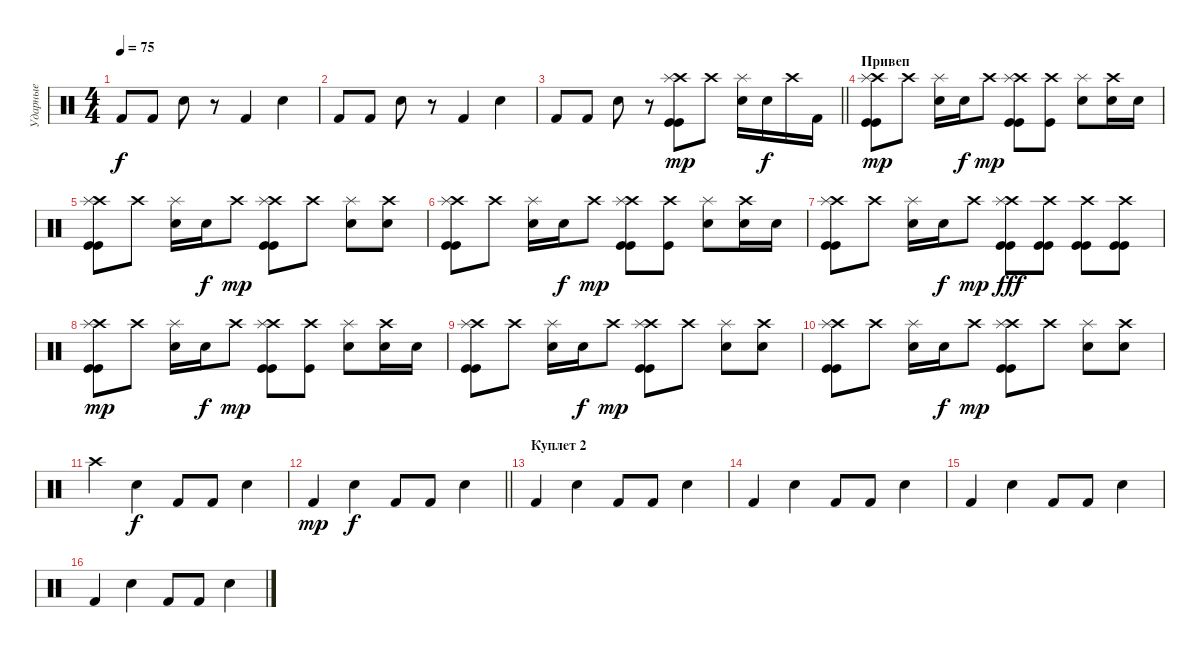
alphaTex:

\track ("Ударные" "Ударные") {instrument percussion}
\staff {score}
\articulation defaults
\ts (4 4)
\tempo 75
\clef neutral
\ks c "Kick (hit) 2".8{dy f} "Kick (hit) 2".8 "Electric Snare (hit)".8
r.8 "Kick (hit) 2".4 "Electric Snare (hit)".4 |
"Kick (hit) 2".8 "Kick (hit) 2".8 "Electric Snare (hit)".8 r.8 "Kick (hit) 2".4 "Electric Snare (hit)".4 |
\barLineRight lightlight "Kick (hit) 2".8 "Kick (hit) 2".8 "Electric Snare (hit)".8
r.8 ("Crash high (hit)" "Splash (hit)" "Kick (hit)" "Kick (hit)").8{dy mp} "Crash high (hit)".8 ("Splash (hit)" "Electric Snare (hit)").16 "Snare (hit) 2".16{dy f} "Crash high (hit)".16 "Kick (hit) 2".16 |
\section ("" "Привеп")
("Crash high (hit)" "Splash (hit)" "Kick (hit)" "Kick (hit)").8{dy mp} "Crash high (hit)".8 ("Splash (hit)" "Electric Snare (hit)").16 "Snare (hit) 2".16{dy f} "Crash high (hit)".8{dy mp} ("Crash high (hit)" "Splash (hit)" "Kick (hit)" "Kick (hit)").8 ("Crash high (hit)" "Kick (hit)").8 ("Splash (hit)" "Electric Snare (hit)").8 ("Crash high (hit)" "Snare (hit) 2").16 "Electric Snare (hit)".16 |
("Crash high (hit)" "Splash (hit)" "Kick (hit)" "Kick (hit)").8 "Crash high (hit)".8 ("Splash (hit)" "Electric Snare (hit)").16 "Snare (hit) 2".16{dy f} "Crash high (hit)".8{dy mp} ("Crash high (hit)" "Splash (hit)" "Kick (hit)" "Kick (hit)").8 "Crash high (hit)".8 ("Splash (hit)" "Electric Snare (hit)").8 ("Crash high (hit)" "Snare (hit) 2").8 |
("Crash high (hit)" "Splash (hit)" "Kick (hit)" "Kick (hit)").8 "Crash high (hit)".8 ("Splash (hit)" "Electric Snare (hit)").16 "Snare (hit) 2".16{dy f} "Crash high (hit)".8{dy mp} ("Crash high (hit)" "Splash (hit)" "Kick (hit)" "Kick (hit)").8 ("Crash high (hit)" "Kick (hit)").8 ("Splash (hit)" "Electric Snare (hit)").8 ("Crash high (hit)" "Snare (hit) 2").16 "Electric Snare (hit)".16 |
("Crash high (hit)" "Splash (hit)" "Kick (hit)" "Kick (hit)").8 "Crash high (hit)".8 ("Splash (hit)" "Electric Snare (hit)").16 "Snare (hit) 2".16{dy f} "Crash high (hit)".8{dy mp} ("Crash high (hit)" "Splash (hit)" "Kick (hit)" "Kick (hit)").8{dy fff} ("Crash high (hit)" "Kick (hit)" "Kick (hit)").8 ("Crash high (hit)" "Kick (hit)" "Kick (hit)").8 ("Crash high (hit)" "Kick (hit)" "Kick (hit)").8 |
("Crash high (hit)" "Splash (hit)" "Kick (hit)" "Kick (hit)").8{dy mp} "Crash high (hit)".8 ("Splash (hit)" "Electric Snare (hit)").16 "Snare (hit) 2".16{dy f} "Crash high (hit)".8{dy mp} ("Crash high (hit)" "Splash (hit)" "Kick (hit)" "Kick (hit)").8 ("Crash high (hit)" "Kick (hit)").8 ("Splash (hit)" "Electric Snare (hit)").8 ("Crash high (hit)" "Snare (hit) 2").16 "Electric Snare (hit)".16 |
("Crash high (hit)" "Splash (hit)" "Kick (hit)" "Kick (hit)").8 "Crash high (hit)".8 ("Splash (hit)" "Electric Snare (hit)").16 "Snare (hit) 2".16{dy f} "Crash high (hit)".8{dy mp} ("Crash high (hit)" "Splash (hit)" "Kick (hit)" "Kick (hit)").8 "Crash high (hit)".8 ("Splash (hit)" "Electric Snare (hit)").8 ("Crash high (hit)" "Snare (hit) 2").8 |
("Crash high (hit)" "Splash (hit)" "Kick (hit)" "Kick (hit)").8 "Crash high (hit)".8 ("Splash (hit)" "Electric Snare (hit)").16 "Snare (hit) 2".16{dy f} "Crash high (hit)".8{dy mp} ("Crash high (hit)" "Splash (hit)" "Kick (hit)" "Kick (hit)").8 "Crash high (hit)".8 ("Splash (hit)" "Electric Snare (hit)").8 ("Crash high (hit)" "Snare (hit) 2").8 |
"Crash high (hit)".4 "Electric Snare (hit)".4{dy f} "Kick (hit) 2".8 "Kick (hit) 2".8 "Electric Snare (hit)".4 |
\barLineRight lightlight "Kick (hit) 2".4{dy mp} "Electric Snare (hit)".4{dy f} "Kick (hit) 2".8 "Kick (hit) 2".8 "Electric Snare (hit)".4
|
\section ("" "Куплет 2")
"Kick (hit) 2".4 "Electric Snare (hit)".4 "Kick (hit) 2".8 "Kick (hit) 2".8 "Electric Snare (hit)".4 |
"Kick (hit) 2".4 "Electric Snare (hit)".4 "Kick (hit) 2".8 "Kick (hit) 2".8 "Electric Snare (hit)".4 |
"Kick (hit) 2".4 "Electric Snare (hit)".4 "Kick (hit) 2".8 "Kick (hit) 2".8 "Electric Snare (hit)".4 |
"Kick (hit) 2".4 "Electric Snare (hit)".4 "Kick (hit) 2".8 "Kick (hit) 2".8 "Electric Snare (hit)".4
